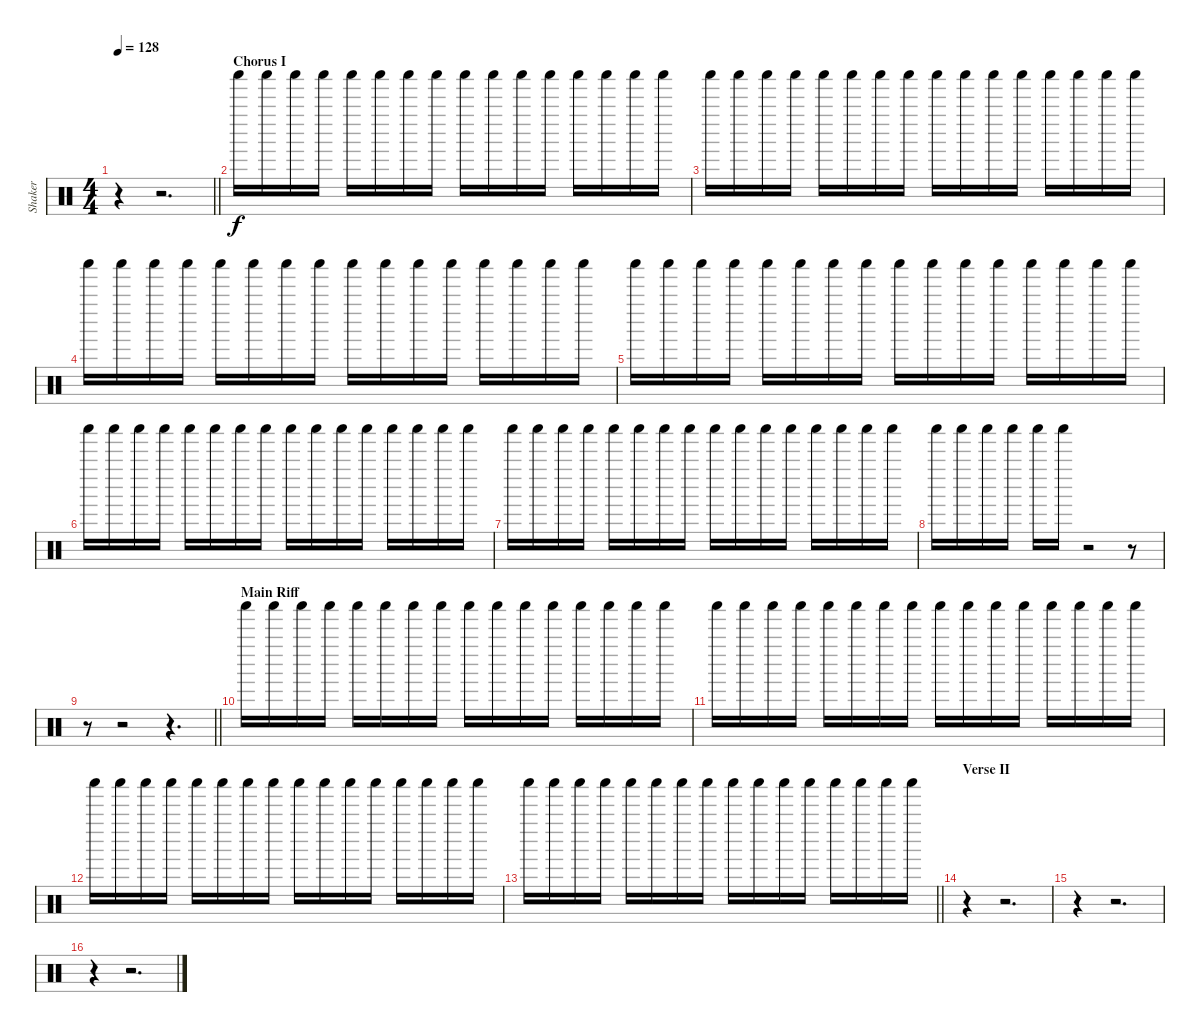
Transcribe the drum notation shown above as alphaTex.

\track ("Shaker" "Shaker") {instrument percussion}
\staff {score}
\articulation defaults
\ts (4 4)
\tempo 128
\clef neutral
\barLineRight lightlight
\ks c
r.4{dy f} r.2{d} |
\section ("" "Chorus I")
"Shaker (hit)".16 "Shaker (hit)".16 "Shaker (hit)".16 "Shaker (hit)".16 "Shaker (hit)".16 "Shaker (hit)".16 "Shaker (hit)".16 "Shaker (hit)".16 "Shaker (hit)".16 "Shaker (hit)".16 "Shaker (hit)".16 "Shaker (hit)".16 "Shaker (hit)".16 "Shaker (hit)".16 "Shaker (hit)".16 "Shaker (hit)".16 |
"Shaker (hit)".16 "Shaker (hit)".16 "Shaker (hit)".16 "Shaker (hit)".16 "Shaker (hit)".16 "Shaker (hit)".16 "Shaker (hit)".16 "Shaker (hit)".16 "Shaker (hit)".16 "Shaker (hit)".16 "Shaker (hit)".16 "Shaker (hit)".16 "Shaker (hit)".16 "Shaker (hit)".16 "Shaker (hit)".16 "Shaker (hit)".16 |
"Shaker (hit)".16 "Shaker (hit)".16 "Shaker (hit)".16 "Shaker (hit)".16 "Shaker (hit)".16 "Shaker (hit)".16 "Shaker (hit)".16 "Shaker (hit)".16 "Shaker (hit)".16 "Shaker (hit)".16 "Shaker (hit)".16 "Shaker (hit)".16 "Shaker (hit)".16 "Shaker (hit)".16 "Shaker (hit)".16 "Shaker (hit)".16 |
"Shaker (hit)".16 "Shaker (hit)".16 "Shaker (hit)".16 "Shaker (hit)".16 "Shaker (hit)".16 "Shaker (hit)".16 "Shaker (hit)".16 "Shaker (hit)".16 "Shaker (hit)".16 "Shaker (hit)".16 "Shaker (hit)".16 "Shaker (hit)".16 "Shaker (hit)".16 "Shaker (hit)".16 "Shaker (hit)".16 "Shaker (hit)".16 |
"Shaker (hit)".16 "Shaker (hit)".16 "Shaker (hit)".16 "Shaker (hit)".16 "Shaker (hit)".16 "Shaker (hit)".16 "Shaker (hit)".16 "Shaker (hit)".16 "Shaker (hit)".16 "Shaker (hit)".16 "Shaker (hit)".16 "Shaker (hit)".16 "Shaker (hit)".16 "Shaker (hit)".16 "Shaker (hit)".16 "Shaker (hit)".16 |
"Shaker (hit)".16 "Shaker (hit)".16 "Shaker (hit)".16 "Shaker (hit)".16 "Shaker (hit)".16 "Shaker (hit)".16 "Shaker (hit)".16 "Shaker (hit)".16 "Shaker (hit)".16 "Shaker (hit)".16 "Shaker (hit)".16 "Shaker (hit)".16 "Shaker (hit)".16 "Shaker (hit)".16 "Shaker (hit)".16 "Shaker (hit)".16 |
"Shaker (hit)".16 "Shaker (hit)".16 "Shaker (hit)".16 "Shaker (hit)".16 "Shaker (hit)".16 "Shaker (hit)".16 r.2 r.8 |
\barLineRight lightlight
r.8 r.2 r.4{d} |
\section ("" "Main Riff")
"Shaker (hit)".16 "Shaker (hit)".16 "Shaker (hit)".16 "Shaker (hit)".16 "Shaker (hit)".16 "Shaker (hit)".16 "Shaker (hit)".16 "Shaker (hit)".16 "Shaker (hit)".16 "Shaker (hit)".16 "Shaker (hit)".16 "Shaker (hit)".16 "Shaker (hit)".16 "Shaker (hit)".16 "Shaker (hit)".16 "Shaker (hit)".16 |
"Shaker (hit)".16 "Shaker (hit)".16 "Shaker (hit)".16 "Shaker (hit)".16 "Shaker (hit)".16 "Shaker (hit)".16 "Shaker (hit)".16 "Shaker (hit)".16 "Shaker (hit)".16 "Shaker (hit)".16 "Shaker (hit)".16 "Shaker (hit)".16 "Shaker (hit)".16 "Shaker (hit)".16 "Shaker (hit)".16 "Shaker (hit)".16 |
"Shaker (hit)".16 "Shaker (hit)".16 "Shaker (hit)".16 "Shaker (hit)".16 "Shaker (hit)".16 "Shaker (hit)".16 "Shaker (hit)".16 "Shaker (hit)".16 "Shaker (hit)".16 "Shaker (hit)".16 "Shaker (hit)".16 "Shaker (hit)".16 "Shaker (hit)".16 "Shaker (hit)".16 "Shaker (hit)".16 "Shaker (hit)".16 |
\barLineRight lightlight "Shaker (hit)".16 "Shaker (hit)".16 "Shaker (hit)".16 "Shaker (hit)".16 "Shaker (hit)".16 "Shaker (hit)".16 "Shaker (hit)".16 "Shaker (hit)".16 "Shaker (hit)".16 "Shaker (hit)".16 "Shaker (hit)".16 "Shaker (hit)".16 "Shaker (hit)".16 "Shaker (hit)".16 "Shaker (hit)".16 "Shaker (hit)".16
|
\section ("" "Verse II")
r.4 r.2{d} |
r.4 r.2{d} |
r.4 r.2{d}
